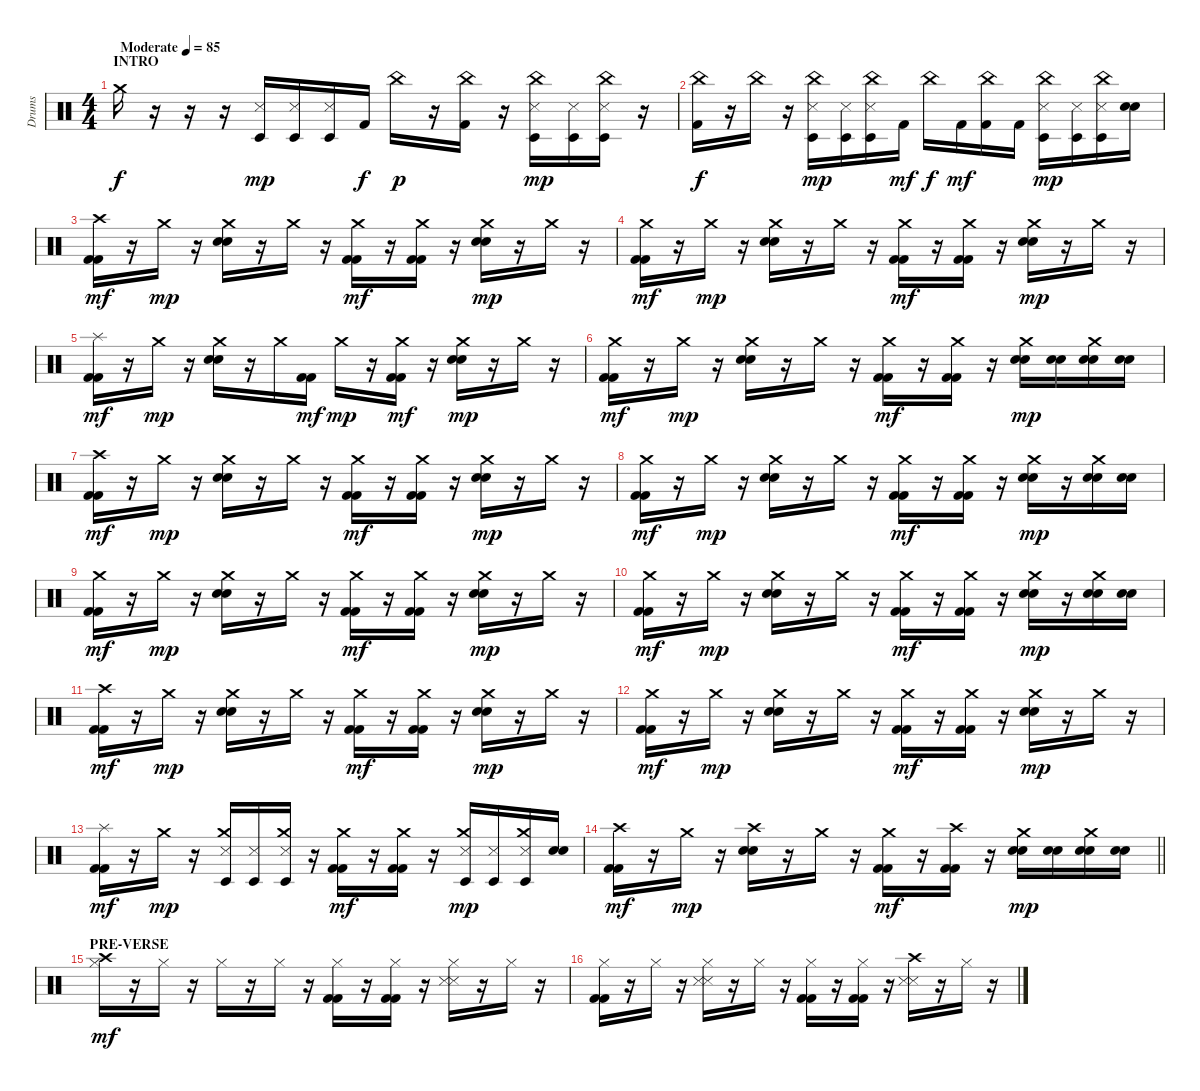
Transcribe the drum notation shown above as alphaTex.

\track ("Drums" "Drums") {instrument percussion}
\staff {score}
\articulation defaults
\ts (4 4)
\section ("" "INTRO")
\tempo (85 "Moderate")
\clef neutral
\ks c "Crash medium (hit)".16{dy f volume 2}
r.16{volume 13} r.16 r.16 ("Snare (side stick) 3" "Timbale low (hit)").16{dy mp balance 3} ("Snare (side stick) 3" "Timbale low (hit)").16{balance 12} ("Snare (side stick) 3" "Timbale low (hit)").16{balance 4} "Kick (hit) 2".16{dy f balance 8} "China (hit)".16{dy p} r.16 ("China (hit)" "Kick (hit) 2").16 r.16 ("China (hit)" "Snare (side stick) 3" "Timbale low (hit)").16{dy mp balance 4} ("Snare (side stick) 3" "Timbale low (hit)").16{balance 12} ("China (hit)" "Snare (side stick) 3" "Timbale low (hit)").16{balance 4} r.16{balance 8} |
("China (hit)" "Kick (hit) 2").16{dy f} r.16 "China (hit)".16 r.16 ("China (hit)" "Snare (side stick) 3" "Timbale low (hit)").16{dy mp balance 4} ("Snare (side stick) 3" "Timbale low (hit)").16{balance 12} ("China (hit)" "Snare (side stick) 3" "Timbale low (hit)").16{balance 4} "Kick (hit) 2".16{dy mf balance 8} "China (hit)".16{dy f} "Kick (hit) 2".16{dy mf} ("China (hit)" "Kick (hit) 2").16 "Kick (hit) 2".16 ("China (hit)" "Snare (side stick) 3" "Timbale low (hit)").16{dy mp balance 4} ("Snare (side stick) 3" "Timbale low (hit)").16{balance 12} ("China (hit)" "Snare (side stick) 3" "Timbale low (hit)").16{balance 4} ("Snare (hit) 2" "Electric Snare (hit)").16{balance 8} |
("Crash high (hit)" "Kick (hit) 2" "Kick (hit) 2").16{dy mf} r.16 "Crash medium (hit)".16{dy mp} r.16 ("Crash medium (hit)" "Snare (hit) 2" "Electric Snare (hit)").16 r.16 "Crash medium (hit)".16 r.16 ("Crash medium (hit)" "Kick (hit) 2" "Kick (hit) 2").16{dy mf} r.16 ("Crash medium (hit)" "Kick (hit) 2" "Kick (hit) 2").16 r.16 ("Crash medium (hit)" "Snare (hit) 2" "Electric Snare (hit)").16{dy mp} r.16 "Crash medium (hit)".16 r.16 |
("Crash medium (hit)" "Kick (hit) 2" "Kick (hit) 2").16{dy mf} r.16 "Crash medium (hit)".16{dy mp} r.16 ("Crash medium (hit)" "Snare (hit) 2" "Electric Snare (hit)").16 r.16 "Crash medium (hit)".16 r.16 ("Crash medium (hit)" "Kick (hit) 2" "Kick (hit) 2").16{dy mf} r.16 ("Crash medium (hit)" "Kick (hit) 2" "Kick (hit) 2").16 r.16 ("Crash medium (hit)" "Snare (hit) 2" "Electric Snare (hit)").16{dy mp} r.16 "Crash medium (hit)".16 r.16 |
("Splash (hit)" "Kick (hit) 2" "Kick (hit) 2").16{dy mf} r.16 "Crash medium (hit)".16{dy mp} r.16 ("Crash medium (hit)" "Snare (hit) 2" "Electric Snare (hit)").16 r.16 "Crash medium (hit)".16 ("Kick (hit) 2" "Kick (hit) 2").16{dy mf} "Crash medium (hit)".16{dy mp} r.16 ("Crash medium (hit)" "Kick (hit) 2" "Kick (hit) 2").16{dy mf} r.16 ("Crash medium (hit)" "Snare (hit) 2" "Electric Snare (hit)").16{dy mp} r.16 "Crash medium (hit)".16 r.16 |
("Crash medium (hit)" "Kick (hit) 2" "Kick (hit) 2").16{dy mf} r.16 "Crash medium (hit)".16{dy mp} r.16 ("Crash medium (hit)" "Snare (hit) 2" "Electric Snare (hit)").16 r.16 "Crash medium (hit)".16 r.16 ("Crash medium (hit)" "Kick (hit) 2" "Kick (hit) 2").16{dy mf} r.16 ("Crash medium (hit)" "Kick (hit) 2" "Kick (hit) 2").16 r.16 ("Crash medium (hit)" "Snare (hit) 2" "Electric Snare (hit)").16{dy mp} ("Snare (hit) 2" "Electric Snare (hit)").16 ("Crash medium (hit)" "Snare (hit) 2" "Electric Snare (hit)").16 ("Snare (hit) 2" "Electric Snare (hit)").16 |
("Crash high (hit)" "Kick (hit) 2" "Kick (hit) 2").16{dy mf} r.16 "Crash medium (hit)".16{dy mp} r.16 ("Crash medium (hit)" "Snare (hit) 2" "Electric Snare (hit)").16 r.16 "Crash medium (hit)".16 r.16 ("Crash medium (hit)" "Kick (hit) 2" "Kick (hit) 2").16{dy mf} r.16 ("Crash medium (hit)" "Kick (hit) 2" "Kick (hit) 2").16 r.16 ("Crash medium (hit)" "Snare (hit) 2" "Electric Snare (hit)").16{dy mp} r.16 "Crash medium (hit)".16 r.16 |
("Crash medium (hit)" "Kick (hit) 2" "Kick (hit) 2").16{dy mf} r.16 "Crash medium (hit)".16{dy mp} r.16 ("Crash medium (hit)" "Snare (hit) 2" "Electric Snare (hit)").16 r.16 "Crash medium (hit)".16 r.16 ("Crash medium (hit)" "Kick (hit) 2" "Kick (hit) 2").16{dy mf} r.16 ("Crash medium (hit)" "Kick (hit) 2" "Kick (hit) 2").16 r.16 ("Crash medium (hit)" "Snare (hit) 2" "Electric Snare (hit)").16{dy mp} r.16 ("Crash medium (hit)" "Snare (hit) 2" "Electric Snare (hit)").16 ("Snare (hit) 2" "Electric Snare (hit)").16 |
("Crash medium (hit)" "Kick (hit) 2" "Kick (hit) 2").16{dy mf} r.16 "Crash medium (hit)".16{dy mp} r.16 ("Crash medium (hit)" "Snare (hit) 2" "Electric Snare (hit)").16 r.16 "Crash medium (hit)".16 r.16 ("Crash medium (hit)" "Kick (hit) 2" "Kick (hit) 2").16{dy mf} r.16 ("Crash medium (hit)" "Kick (hit) 2" "Kick (hit) 2").16 r.16 ("Crash medium (hit)" "Snare (hit) 2" "Electric Snare (hit)").16{dy mp} r.16 "Crash medium (hit)".16 r.16 |
("Crash medium (hit)" "Kick (hit) 2" "Kick (hit) 2").16{dy mf} r.16 "Crash medium (hit)".16{dy mp} r.16 ("Crash medium (hit)" "Snare (hit) 2" "Electric Snare (hit)").16 r.16 "Crash medium (hit)".16 r.16 ("Crash medium (hit)" "Kick (hit) 2" "Kick (hit) 2").16{dy mf} r.16 ("Crash medium (hit)" "Kick (hit) 2" "Kick (hit) 2").16 r.16 ("Crash medium (hit)" "Snare (hit) 2" "Electric Snare (hit)").16{dy mp} r.16 ("Crash medium (hit)" "Snare (hit) 2" "Electric Snare (hit)").16 ("Snare (hit) 2" "Electric Snare (hit)").16 |
("Crash high (hit)" "Kick (hit) 2" "Kick (hit) 2").16{dy mf} r.16 "Crash medium (hit)".16{dy mp} r.16 ("Crash medium (hit)" "Snare (hit) 2" "Electric Snare (hit)").16 r.16 "Crash medium (hit)".16 r.16 ("Crash medium (hit)" "Kick (hit) 2" "Kick (hit) 2").16{dy mf} r.16 ("Crash medium (hit)" "Kick (hit) 2" "Kick (hit) 2").16 r.16 ("Crash medium (hit)" "Snare (hit) 2" "Electric Snare (hit)").16{dy mp} r.16 "Crash medium (hit)".16 r.16 |
("Crash medium (hit)" "Kick (hit) 2" "Kick (hit) 2").16{dy mf} r.16 "Crash medium (hit)".16{dy mp} r.16 ("Crash medium (hit)" "Snare (hit) 2" "Electric Snare (hit)").16 r.16 "Crash medium (hit)".16 r.16 ("Crash medium (hit)" "Kick (hit) 2" "Kick (hit) 2").16{dy mf} r.16 ("Crash medium (hit)" "Kick (hit) 2" "Kick (hit) 2").16 r.16 ("Crash medium (hit)" "Snare (hit) 2" "Electric Snare (hit)").16{dy mp} r.16 "Crash medium (hit)".16 r.16 |
("Splash (hit)" "Kick (hit) 2" "Kick (hit) 2").16{dy mf} r.16 "Crash medium (hit)".16{dy mp} r.16 ("Crash medium (hit)" "Snare (side stick) 3" "Timbale low (hit)").16 ("Snare (side stick) 3" "Timbale low (hit)").16 ("Crash medium (hit)" "Snare (side stick) 3" "Timbale low (hit)").16 r.16 ("Crash medium (hit)" "Kick (hit) 2" "Kick (hit) 2").16{dy mf} r.16 ("Crash medium (hit)" "Kick (hit) 2" "Kick (hit) 2").16 r.16 ("Crash medium (hit)" "Snare (side stick) 3" "Timbale low (hit)").16{dy mp} ("Snare (side stick) 3" "Timbale low (hit)").16 ("Crash medium (hit)" "Snare (side stick) 3" "Timbale low (hit)").16 ("Snare (hit) 2" "Electric Snare (hit)").16 |
\barLineRight lightlight
("Crash high (hit)" "Kick (hit) 2" "Kick (hit) 2").16{dy mf} r.16 "Crash medium (hit)".16{dy mp} r.16 ("Crash high (hit)" "Snare (hit) 2" "Electric Snare (hit)").16 r.16 "Crash medium (hit)".16 r.16 ("Crash medium (hit)" "Kick (hit) 2" "Kick (hit) 2").16{dy mf} r.16 ("Crash high (hit)" "Kick (hit) 2" "Kick (hit) 2").16 r.16 ("Crash medium (hit)" "Snare (hit) 2" "Electric Snare (hit)").16{dy mp} ("Snare (hit) 2" "Electric Snare (hit)").16 ("Crash medium (hit)" "Snare (hit) 2" "Electric Snare (hit)").16 ("Snare (hit) 2" "Electric Snare (hit)").16 |
\section ("" "PRE-VERSE")
("Hi-Hat (closed)" "Crash high (hit)").16{dy mf} r.16 "Hi-Hat (closed)".16 r.16 "Hi-Hat (closed)".16 r.16 "Hi-Hat (closed)".16 r.16 ("Hi-Hat (closed)" "Kick (hit) 2" "Kick (hit) 2").16 r.16 ("Hi-Hat (closed)" "Kick (hit) 2" "Kick (hit) 2").16 r.16 ("Hi-Hat (closed)" "Snare (side stick) 3" "Snare (side stick) 3").16 r.16 "Hi-Hat (closed)".16 r.16 |
("Hi-Hat (closed)" "Kick (hit) 2" "Kick (hit) 2").16 r.16 "Hi-Hat (closed)".16 r.16 ("Hi-Hat (closed)" "Snare (side stick) 3" "Snare (side stick) 3").16 r.16 "Hi-Hat (closed)".16 r.16 ("Hi-Hat (closed)" "Kick (hit) 2" "Kick (hit) 2").16 r.16 ("Hi-Hat (closed)" "Kick (hit) 2" "Kick (hit) 2").16 r.16 ("Crash high (hit)" "Snare (side stick) 3" "Snare (side stick) 3").16 r.16 "Hi-Hat (closed)".16 r.16
